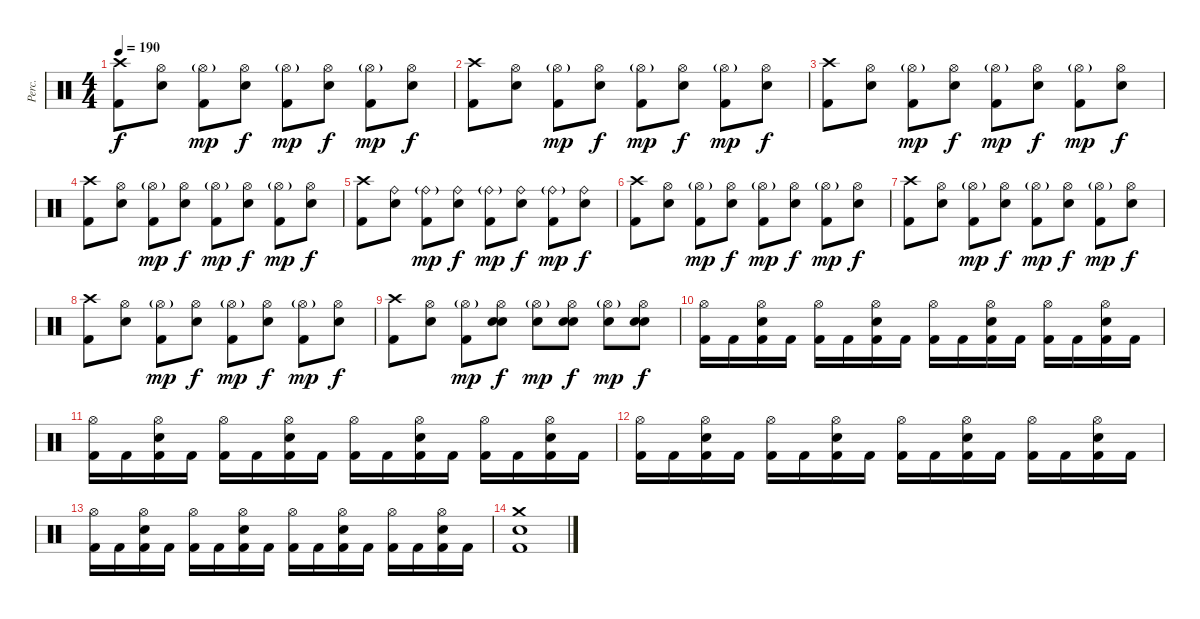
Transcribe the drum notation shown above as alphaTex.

\track ("Perc." "Perc.") {instrument percussion}
\staff {score}
\articulation defaults
\ts (4 4)
\tempo 190
\clef neutral
\ks c
("Crash high (hit)" "Kick (hit) 2").8{dy f} ("Hi-Hat (open)" "Snare (hit) 2").8 ("Hi-Hat (open)"{g} "Kick (hit) 2").8{dy mp} ("Hi-Hat (open)" "Snare (hit) 2").8{dy f} ("Hi-Hat (open)"{g} "Kick (hit) 2").8{dy mp} ("Hi-Hat (open)" "Snare (hit) 2").8{dy f} ("Hi-Hat (open)"{g} "Kick (hit) 2").8{dy mp} ("Hi-Hat (open)" "Snare (hit) 2").8{dy f} |
("Crash high (hit)" "Kick (hit) 2").8 ("Hi-Hat (open)" "Snare (hit) 2").8 ("Hi-Hat (open)"{g} "Kick (hit) 2").8{dy mp} ("Hi-Hat (open)" "Snare (hit) 2").8{dy f} ("Hi-Hat (open)"{g} "Kick (hit) 2").8{dy mp} ("Hi-Hat (open)" "Snare (hit) 2").8{dy f} ("Hi-Hat (open)"{g} "Kick (hit) 2").8{dy mp} ("Hi-Hat (open)" "Snare (hit) 2").8{dy f} |
("Crash high (hit)" "Kick (hit) 2").8 ("Hi-Hat (open)" "Snare (hit) 2").8 ("Hi-Hat (open)"{g} "Kick (hit) 2").8{dy mp} ("Hi-Hat (open)" "Snare (hit) 2").8{dy f} ("Hi-Hat (open)"{g} "Kick (hit) 2").8{dy mp} ("Hi-Hat (open)" "Snare (hit) 2").8{dy f} ("Hi-Hat (open)"{g} "Kick (hit) 2").8{dy mp} ("Hi-Hat (open)" "Snare (hit) 2").8{dy f} |
("Crash high (hit)" "Kick (hit) 2").8 ("Hi-Hat (open)" "Snare (hit) 2").8 ("Hi-Hat (open)"{g} "Kick (hit) 2").8{dy mp} ("Hi-Hat (open)" "Snare (hit) 2").8{dy f} ("Hi-Hat (open)"{g} "Kick (hit) 2").8{dy mp} ("Hi-Hat (open)" "Snare (hit) 2").8{dy f} ("Hi-Hat (open)"{g} "Kick (hit) 2").8{dy mp} ("Hi-Hat (open)" "Snare (hit) 2").8{dy f} |
("Crash high (hit)" "Kick (hit) 2").8 ("Ride (bell)" "Snare (hit) 2").8 ("Ride (bell)"{g} "Kick (hit) 2").8{dy mp} ("Ride (bell)" "Snare (hit) 2").8{dy f} ("Ride (bell)"{g} "Kick (hit) 2").8{dy mp} ("Ride (bell)" "Snare (hit) 2").8{dy f} ("Ride (bell)"{g} "Kick (hit) 2").8{dy mp} ("Ride (bell)" "Snare (hit) 2").8{dy f} |
("Crash high (hit)" "Kick (hit) 2").8 ("Hi-Hat (open)" "Snare (hit) 2").8 ("Hi-Hat (open)"{g} "Kick (hit) 2").8{dy mp} ("Hi-Hat (open)" "Snare (hit) 2").8{dy f} ("Hi-Hat (open)"{g} "Kick (hit) 2").8{dy mp} ("Hi-Hat (open)" "Snare (hit) 2").8{dy f} ("Hi-Hat (open)"{g} "Kick (hit) 2").8{dy mp} ("Hi-Hat (open)" "Snare (hit) 2").8{dy f} |
("Crash high (hit)" "Kick (hit) 2").8 ("Hi-Hat (open)" "Snare (hit) 2").8 ("Hi-Hat (open)"{g} "Kick (hit) 2").8{dy mp} ("Hi-Hat (open)" "Snare (hit) 2").8{dy f} ("Hi-Hat (open)"{g} "Kick (hit) 2").8{dy mp} ("Hi-Hat (open)" "Snare (hit) 2").8{dy f} ("Hi-Hat (open)"{g} "Kick (hit) 2").8{dy mp} ("Hi-Hat (open)" "Snare (hit) 2").8{dy f} |
("Crash high (hit)" "Kick (hit) 2").8 ("Hi-Hat (open)" "Snare (hit) 2").8 ("Hi-Hat (open)"{g} "Kick (hit) 2").8{dy mp} ("Hi-Hat (open)" "Snare (hit) 2").8{dy f} ("Hi-Hat (open)"{g} "Kick (hit) 2").8{dy mp} ("Hi-Hat (open)" "Snare (hit) 2").8{dy f} ("Hi-Hat (open)"{g} "Kick (hit) 2").8{dy mp} ("Hi-Hat (open)" "Snare (hit) 2").8{dy f} |
("Crash high (hit)" "Kick (hit) 2").8 ("Hi-Hat (open)" "Snare (hit) 2").8 ("Hi-Hat (open)"{g} "Kick (hit) 2").8{dy mp} ("Hi-Hat (open)" "Snare (hit) 2" "Snare (hit) 2").8{dy f} ("Hi-Hat (open)"{g} "Snare (hit) 2").8{dy mp} ("Hi-Hat (open)" "Snare (hit) 2" "Snare (hit) 2").8{dy f} ("Hi-Hat (open)"{g} "Snare (hit) 2").8{dy mp} ("Hi-Hat (open)" "Snare (hit) 2" "Snare (hit) 2").8{dy f} |
("Kick (hit) 2" "Hi-Hat (open)").16 "Kick (hit) 2".16 ("Kick (hit) 2" "Hi-Hat (open)" "Snare (hit) 2").16 "Kick (hit) 2".16 ("Kick (hit) 2" "Hi-Hat (open)").16 "Kick (hit) 2".16 ("Kick (hit) 2" "Hi-Hat (open)" "Snare (hit) 2").16 "Kick (hit) 2".16 ("Kick (hit) 2" "Hi-Hat (open)").16 "Kick (hit) 2".16 ("Kick (hit) 2" "Hi-Hat (open)" "Snare (hit) 2").16 "Kick (hit) 2".16 ("Kick (hit) 2" "Hi-Hat (open)").16 "Kick (hit) 2".16 ("Kick (hit) 2" "Hi-Hat (open)" "Snare (hit) 2").16 "Kick (hit) 2".16 |
("Kick (hit) 2" "Hi-Hat (open)").16 "Kick (hit) 2".16 ("Kick (hit) 2" "Hi-Hat (open)" "Snare (hit) 2").16 "Kick (hit) 2".16 ("Kick (hit) 2" "Hi-Hat (open)").16 "Kick (hit) 2".16 ("Kick (hit) 2" "Hi-Hat (open)" "Snare (hit) 2").16 "Kick (hit) 2".16 ("Kick (hit) 2" "Hi-Hat (open)").16 "Kick (hit) 2".16 ("Kick (hit) 2" "Hi-Hat (open)" "Snare (hit) 2").16 "Kick (hit) 2".16 ("Kick (hit) 2" "Hi-Hat (open)").16 "Kick (hit) 2".16 ("Kick (hit) 2" "Hi-Hat (open)" "Snare (hit) 2").16 "Kick (hit) 2".16 |
("Kick (hit) 2" "Hi-Hat (open)").16 "Kick (hit) 2".16 ("Kick (hit) 2" "Hi-Hat (open)" "Snare (hit) 2").16 "Kick (hit) 2".16 ("Kick (hit) 2" "Hi-Hat (open)").16 "Kick (hit) 2".16 ("Kick (hit) 2" "Hi-Hat (open)" "Snare (hit) 2").16 "Kick (hit) 2".16 ("Kick (hit) 2" "Hi-Hat (open)").16 "Kick (hit) 2".16 ("Kick (hit) 2" "Hi-Hat (open)" "Snare (hit) 2").16 "Kick (hit) 2".16 ("Kick (hit) 2" "Hi-Hat (open)").16 "Kick (hit) 2".16 ("Kick (hit) 2" "Hi-Hat (open)" "Snare (hit) 2").16 "Kick (hit) 2".16 |
("Kick (hit) 2" "Hi-Hat (open)").16 "Kick (hit) 2".16 ("Kick (hit) 2" "Hi-Hat (open)" "Snare (hit) 2").16 "Kick (hit) 2".16 ("Kick (hit) 2" "Hi-Hat (open)").16 "Kick (hit) 2".16 ("Kick (hit) 2" "Hi-Hat (open)" "Snare (hit) 2").16 "Kick (hit) 2".16 ("Kick (hit) 2" "Hi-Hat (open)").16 "Kick (hit) 2".16 ("Kick (hit) 2" "Hi-Hat (open)" "Snare (hit) 2").16 "Kick (hit) 2".16 ("Kick (hit) 2" "Hi-Hat (open)").16 "Kick (hit) 2".16 ("Kick (hit) 2" "Hi-Hat (open)" "Snare (hit) 2").16 "Kick (hit) 2".16 |
("Kick (hit) 2" "Snare (hit) 2" "Crash medium (hit)").1
